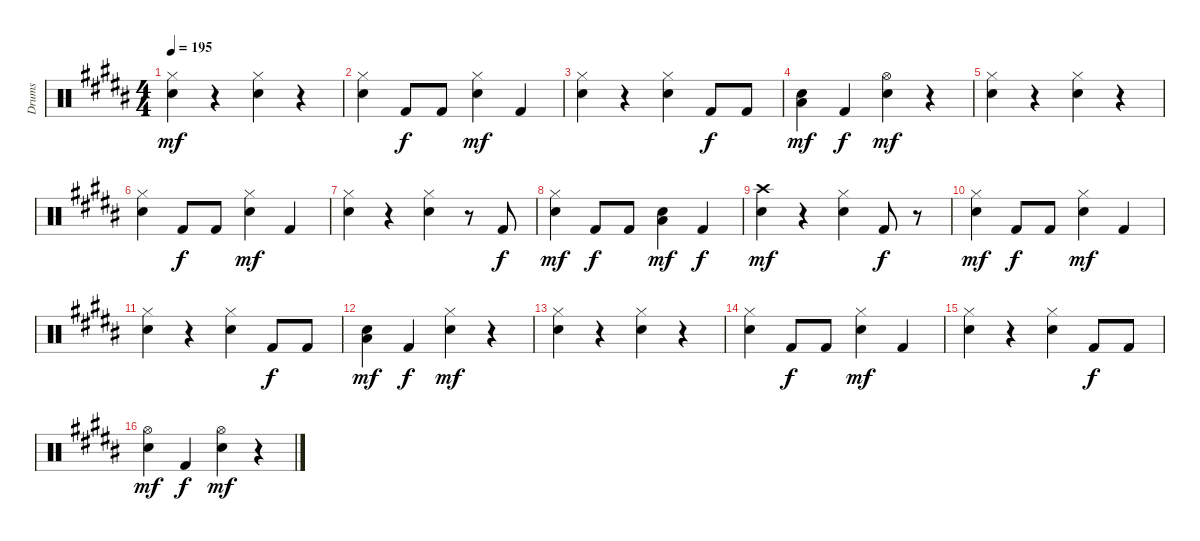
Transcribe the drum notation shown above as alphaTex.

\track ("Drums" "Drums") {instrument percussion}
\staff {score}
\articulation defaults
\ts (4 4)
\tempo 195
\clef neutral
\ks b
("Hi-Hat (closed)" "Electric Snare (hit)").4{dy mf} r.4 ("Hi-Hat (closed)" "Electric Snare (hit)").4 r.4 |
("Hi-Hat (closed)" "Electric Snare (hit)").4 "Kick (hit) 2".8{dy f} "Kick (hit) 2".8 ("Hi-Hat (closed)" "Electric Snare (hit)").4{dy mf} "Kick (hit) 2".4 |
("Hi-Hat (closed)" "Electric Snare (hit)").4 r.4 ("Hi-Hat (closed)" "Electric Snare (hit)").4 "Kick (hit) 2".8{dy f} "Kick (hit) 2".8 |
("Electric Snare (hit)" "Low Floor Tom (hit)").4{dy mf} "Kick (hit) 2".4{dy f} ("Hi-Hat (open)" "Electric Snare (hit)").4{dy mf} r.4 |
("Hi-Hat (closed)" "Electric Snare (hit)").4 r.4 ("Hi-Hat (closed)" "Electric Snare (hit)").4 r.4 |
("Hi-Hat (closed)" "Electric Snare (hit)").4 "Kick (hit) 2".8{dy f} "Kick (hit) 2".8 ("Hi-Hat (closed)" "Electric Snare (hit)").4{dy mf} "Kick (hit) 2".4 |
("Hi-Hat (closed)" "Electric Snare (hit)").4 r.4 ("Hi-Hat (closed)" "Electric Snare (hit)").4 r.8 "Kick (hit) 2".8{dy f} |
("Hi-Hat (closed)" "Electric Snare (hit)").4{dy mf} "Kick (hit) 2".8{dy f} "Kick (hit) 2".8 ("Electric Snare (hit)" "Low Floor Tom (hit)").4{dy mf} "Kick (hit) 2".4{dy f} |
("Crash high (hit)" "Electric Snare (hit)").4{dy mf} r.4 ("Hi-Hat (closed)" "Electric Snare (hit)").4 "Kick (hit) 2".8{dy f} r.8 |
("Hi-Hat (closed)" "Electric Snare (hit)").4{dy mf} "Kick (hit) 2".8{dy f} "Kick (hit) 2".8 ("Hi-Hat (closed)" "Electric Snare (hit)").4{dy mf} "Kick (hit) 2".4 |
("Hi-Hat (closed)" "Electric Snare (hit)").4 r.4 ("Hi-Hat (closed)" "Electric Snare (hit)").4 "Kick (hit) 2".8{dy f} "Kick (hit) 2".8 |
("Electric Snare (hit)" "Low Floor Tom (hit)").4{dy mf} "Kick (hit) 2".4{dy f} ("Hi-Hat (closed)" "Electric Snare (hit)").4{dy mf} r.4 |
("Hi-Hat (closed)" "Electric Snare (hit)").4 r.4 ("Hi-Hat (closed)" "Electric Snare (hit)").4 r.4 |
("Hi-Hat (closed)" "Electric Snare (hit)").4 "Kick (hit) 2".8{dy f} "Kick (hit) 2".8 ("Hi-Hat (closed)" "Electric Snare (hit)").4{dy mf} "Kick (hit) 2".4 |
("Hi-Hat (closed)" "Electric Snare (hit)").4 r.4 ("Hi-Hat (closed)" "Electric Snare (hit)").4 "Kick (hit) 2".8{dy f} "Kick (hit) 2".8 |
("Hi-Hat (open)" "Electric Snare (hit)").4{dy mf} "Kick (hit) 2".4{dy f} ("Hi-Hat (open)" "Electric Snare (hit)").4{dy mf} r.4
